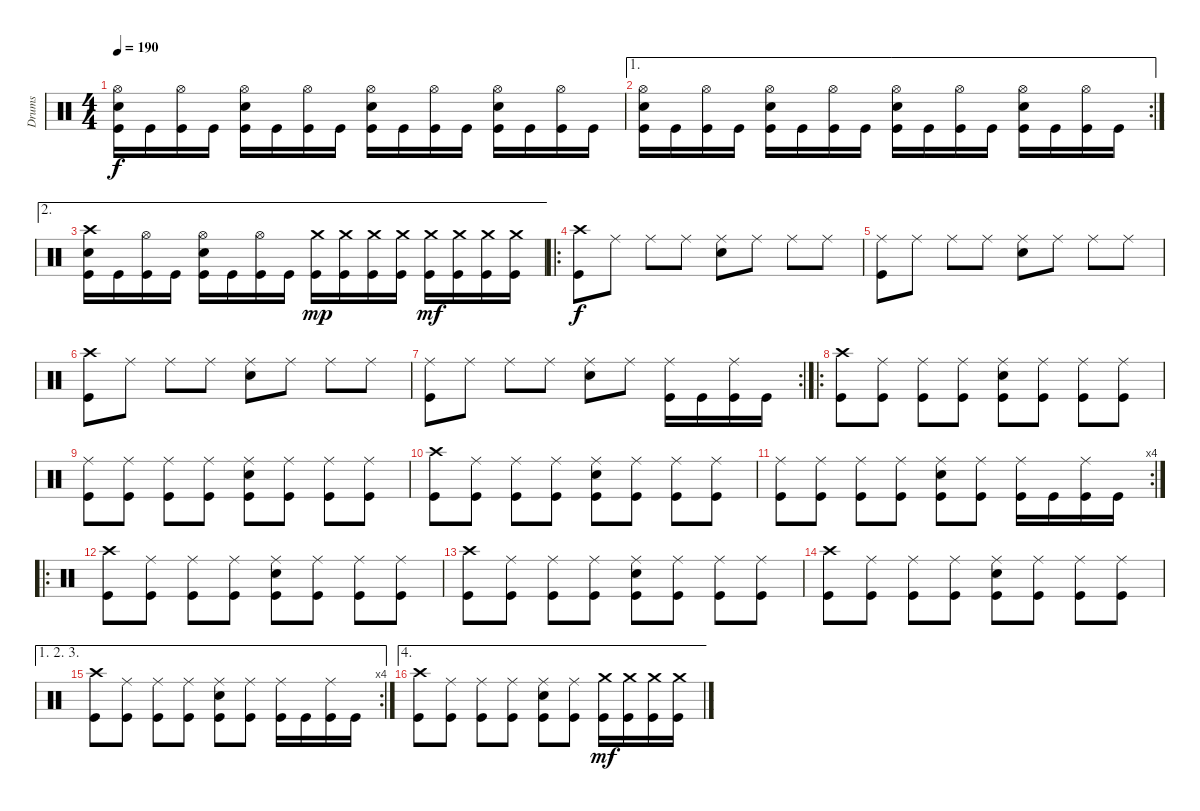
\track ("Drums" "Drums") {instrument percussion}
\staff {score}
\articulation defaults
\ts (4 4)
\tempo 190
\clef neutral
\ks c
("Hi-Hat (open)" "Electric Snare (hit)" "Kick (hit)").16{dy f} "Kick (hit)".16 ("Hi-Hat (open)" "Kick (hit)").16 "Kick (hit)".16 ("Hi-Hat (open)" "Electric Snare (hit)" "Kick (hit)").16 "Kick (hit)".16 ("Hi-Hat (open)" "Kick (hit)").16 "Kick (hit)".16 ("Hi-Hat (open)" "Electric Snare (hit)" "Kick (hit)").16 "Kick (hit)".16 ("Hi-Hat (open)" "Kick (hit)").16 "Kick (hit)".16 ("Hi-Hat (open)" "Electric Snare (hit)" "Kick (hit)").16 "Kick (hit)".16 ("Hi-Hat (open)" "Kick (hit)").16 "Kick (hit)".16 |
\ae 1
\rc 2
("Hi-Hat (open)" "Electric Snare (hit)" "Kick (hit)").16 "Kick (hit)".16 ("Hi-Hat (open)" "Kick (hit)").16 "Kick (hit)".16 ("Hi-Hat (open)" "Electric Snare (hit)" "Kick (hit)").16 "Kick (hit)".16 ("Hi-Hat (open)" "Kick (hit)").16 "Kick (hit)".16 ("Hi-Hat (open)" "Electric Snare (hit)" "Kick (hit)").16 "Kick (hit)".16 ("Hi-Hat (open)" "Kick (hit)").16 "Kick (hit)".16 ("Hi-Hat (open)" "Electric Snare (hit)" "Kick (hit)").16 "Kick (hit)".16 ("Hi-Hat (open)" "Kick (hit)").16 "Kick (hit)".16 |
\ae 2
("Crash high (hit)" "Electric Snare (hit)" "Kick (hit)").16 "Kick (hit)".16 ("Hi-Hat (open)" "Kick (hit)").16 "Kick (hit)".16 ("Hi-Hat (open)" "Electric Snare (hit)" "Kick (hit)").16 "Kick (hit)".16 ("Hi-Hat (open)" "Kick (hit)").16 "Kick (hit)".16 ("Crash medium (hit)" "Kick (hit)").16{dy mp} ("Crash medium (hit)" "Kick (hit)").16 ("Crash medium (hit)" "Kick (hit)").16 ("Crash medium (hit)" "Kick (hit)").16 ("Crash medium (hit)" "Kick (hit)").16{dy mf} ("Crash medium (hit)" "Kick (hit)").16 ("Crash medium (hit)" "Kick (hit)").16 ("Crash medium (hit)" "Kick (hit)").16 |
\ro
("Crash high (hit)" "Kick (hit)").8{dy f} "Ride (middle)".8 "Ride (middle)".8 "Ride (middle)".8 ("Ride (middle)" "Electric Snare (hit)").8 "Ride (middle)".8 "Ride (middle)".8 "Ride (middle)".8 |
("Ride (middle)" "Kick (hit)").8 "Ride (middle)".8 "Ride (middle)".8 "Ride (middle)".8 ("Ride (middle)" "Electric Snare (hit)").8 "Ride (middle)".8 "Ride (middle)".8 "Ride (middle)".8 |
("Crash high (hit)" "Kick (hit)").8 "Ride (middle)".8 "Ride (middle)".8 "Ride (middle)".8 ("Ride (middle)" "Electric Snare (hit)").8 "Ride (middle)".8 "Ride (middle)".8 "Ride (middle)".8 |
\rc 2
("Ride (middle)" "Kick (hit)").8 "Ride (middle)".8 "Ride (middle)".8 "Ride (middle)".8 ("Ride (middle)" "Electric Snare (hit)").8 "Ride (middle)".8 ("Ride (middle)" "Kick (hit)").16 "Kick (hit)".16 ("Ride (middle)" "Kick (hit)").16 "Kick (hit)".16 |
\ro
("Crash high (hit)" "Kick (hit)").8 ("Ride (middle)" "Kick (hit)").8 ("Ride (middle)" "Kick (hit)").8 ("Ride (middle)" "Kick (hit)").8 ("Ride (middle)" "Electric Snare (hit)" "Kick (hit)").8 ("Ride (middle)" "Kick (hit)").8 ("Ride (middle)" "Kick (hit)").8 ("Ride (middle)" "Kick (hit)").8 |
("Ride (middle)" "Kick (hit)").8 ("Ride (middle)" "Kick (hit)").8 ("Ride (middle)" "Kick (hit)").8 ("Ride (middle)" "Kick (hit)").8 ("Ride (middle)" "Electric Snare (hit)" "Kick (hit)").8 ("Ride (middle)" "Kick (hit)").8 ("Ride (middle)" "Kick (hit)").8 ("Ride (middle)" "Kick (hit)").8 |
("Crash high (hit)" "Kick (hit)").8 ("Ride (middle)" "Kick (hit)").8 ("Ride (middle)" "Kick (hit)").8 ("Ride (middle)" "Kick (hit)").8 ("Ride (middle)" "Electric Snare (hit)" "Kick (hit)").8 ("Ride (middle)" "Kick (hit)").8 ("Ride (middle)" "Kick (hit)").8 ("Ride (middle)" "Kick (hit)").8 |
\rc 4
("Ride (middle)" "Kick (hit)").8 ("Ride (middle)" "Kick (hit)").8 ("Ride (middle)" "Kick (hit)").8 ("Ride (middle)" "Kick (hit)").8 ("Ride (middle)" "Electric Snare (hit)" "Kick (hit)").8 ("Ride (middle)" "Kick (hit)").8 ("Ride (middle)" "Kick (hit)").16 "Kick (hit)".16 ("Ride (middle)" "Kick (hit)").16 "Kick (hit)".16 |
\ro
("Crash high (hit)" "Kick (hit)").8 ("Ride (middle)" "Kick (hit)").8 ("Ride (middle)" "Kick (hit)").8 ("Ride (middle)" "Kick (hit)").8 ("Ride (middle)" "Electric Snare (hit)" "Kick (hit)").8 ("Ride (middle)" "Kick (hit)").8 ("Ride (middle)" "Kick (hit)").8 ("Ride (middle)" "Kick (hit)").8 |
("Crash high (hit)" "Kick (hit)").8 ("Ride (middle)" "Kick (hit)").8 ("Ride (middle)" "Kick (hit)").8 ("Ride (middle)" "Kick (hit)").8 ("Ride (middle)" "Electric Snare (hit)" "Kick (hit)").8 ("Ride (middle)" "Kick (hit)").8 ("Ride (middle)" "Kick (hit)").8 ("Ride (middle)" "Kick (hit)").8 |
("Crash high (hit)" "Kick (hit)").8 ("Ride (middle)" "Kick (hit)").8 ("Ride (middle)" "Kick (hit)").8 ("Ride (middle)" "Kick (hit)").8 ("Ride (middle)" "Electric Snare (hit)" "Kick (hit)").8 ("Ride (middle)" "Kick (hit)").8 ("Ride (middle)" "Kick (hit)").8 ("Ride (middle)" "Kick (hit)").8 |
\ae (1 2 3)
\rc 4
("Crash high (hit)" "Kick (hit)").8 ("Ride (middle)" "Kick (hit)").8 ("Ride (middle)" "Kick (hit)").8 ("Ride (middle)" "Kick (hit)").8 ("Ride (middle)" "Electric Snare (hit)" "Kick (hit)").8 ("Ride (middle)" "Kick (hit)").8 ("Ride (middle)" "Kick (hit)").16 "Kick (hit)".16 ("Ride (middle)" "Kick (hit)").16 "Kick (hit)".16 |
\ae 4
("Crash high (hit)" "Kick (hit)").8 ("Ride (middle)" "Kick (hit)").8 ("Ride (middle)" "Kick (hit)").8 ("Ride (middle)" "Kick (hit)").8 ("Ride (middle)" "Electric Snare (hit)" "Kick (hit)").8 ("Ride (middle)" "Kick (hit)").8 ("Crash medium (hit)" "Kick (hit)").16{dy mf} ("Crash medium (hit)" "Kick (hit)").16 ("Crash medium (hit)" "Kick (hit)").16 ("Crash medium (hit)" "Kick (hit)").16
